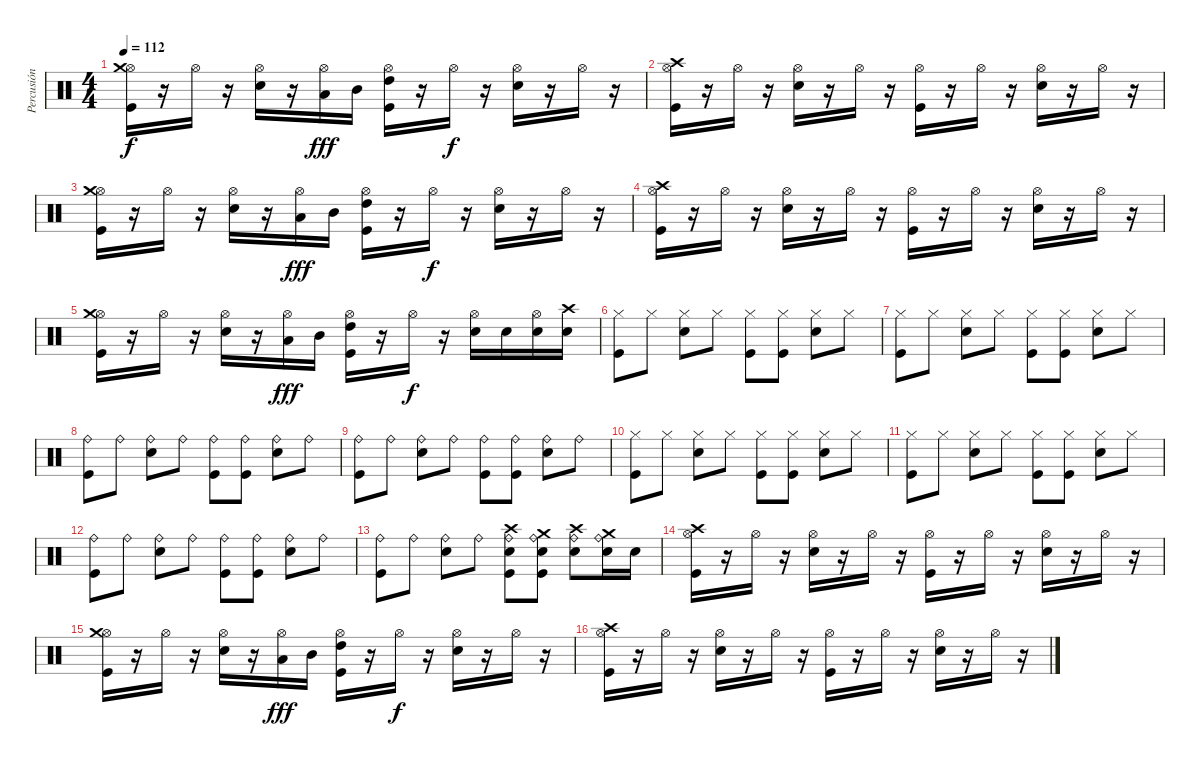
\track ("Percusión" "Percusión") {instrument percussion}
\staff {score}
\articulation defaults
\ts (4 4)
\tempo 112
\clef neutral
\ks c
("Hi-Hat (open)" "Crash medium (hit)" "Kick (hit)").16{dy f} r.16 "Hi-Hat (open)".16 r.16 ("Hi-Hat (open)" "Snare (hit) 2").16 r.16 ("Hi-Hat (open)" "Low Tom (hit)").16{dy fff} "Mid Tom (hit)".16 ("Hi-Hat (open)" "High Tom (hit)" "Kick (hit)").16 r.16 "Hi-Hat (open)".16{dy f} r.16 ("Hi-Hat (open)" "Snare (hit) 2").16 r.16 "Hi-Hat (open)".16 r.16 |
("Hi-Hat (open)" "Crash high (hit)" "Kick (hit)").16 r.16 "Hi-Hat (open)".16 r.16 ("Hi-Hat (open)" "Snare (hit) 2").16 r.16 "Hi-Hat (open)".16 r.16 ("Hi-Hat (open)" "Kick (hit)").16 r.16 "Hi-Hat (open)".16 r.16 ("Hi-Hat (open)" "Snare (hit) 2").16 r.16 "Hi-Hat (open)".16 r.16 |
("Hi-Hat (open)" "Crash medium (hit)" "Kick (hit)").16 r.16 "Hi-Hat (open)".16 r.16 ("Hi-Hat (open)" "Snare (hit) 2").16 r.16 ("Hi-Hat (open)" "Low Tom (hit)").16{dy fff} "Mid Tom (hit)".16 ("Hi-Hat (open)" "High Tom (hit)" "Kick (hit)").16 r.16 "Hi-Hat (open)".16{dy f} r.16 ("Hi-Hat (open)" "Snare (hit) 2").16 r.16 "Hi-Hat (open)".16 r.16 |
("Hi-Hat (open)" "Crash high (hit)" "Kick (hit)").16 r.16 "Hi-Hat (open)".16 r.16 ("Hi-Hat (open)" "Snare (hit) 2").16 r.16 "Hi-Hat (open)".16 r.16 ("Hi-Hat (open)" "Kick (hit)").16 r.16 "Hi-Hat (open)".16 r.16 ("Hi-Hat (open)" "Snare (hit) 2").16 r.16 "Hi-Hat (open)".16 r.16 |
("Hi-Hat (open)" "Crash medium (hit)" "Kick (hit)").16 r.16 "Hi-Hat (open)".16 r.16 ("Hi-Hat (open)" "Snare (hit) 2").16 r.16 ("Hi-Hat (open)" "Low Tom (hit)").16{dy fff} "Mid Tom (hit)".16 ("Hi-Hat (open)" "High Tom (hit)" "Kick (hit)").16 r.16 "Hi-Hat (open)".16{dy f} r.16 ("Hi-Hat (open)" "Snare (hit) 2").16 "Snare (hit) 2".16 ("Hi-Hat (open)" "Snare (hit) 2").16 ("Crash high (hit)" "Snare (hit) 2").16 |
("Hi-Hat (closed)" "Kick (hit)").8 "Hi-Hat (closed)".8 ("Hi-Hat (closed)" "Snare (hit) 2").8 "Hi-Hat (closed)".8 ("Hi-Hat (closed)" "Kick (hit)").8 ("Hi-Hat (closed)" "Kick (hit)").8 ("Hi-Hat (closed)" "Snare (hit) 2").8 "Hi-Hat (closed)".8 |
("Hi-Hat (closed)" "Kick (hit)").8 "Hi-Hat (closed)".8 ("Hi-Hat (closed)" "Snare (hit) 2").8 "Hi-Hat (closed)".8 ("Hi-Hat (closed)" "Kick (hit)").8 ("Hi-Hat (closed)" "Kick (hit)").8 ("Hi-Hat (closed)" "Snare (hit) 2").8 "Hi-Hat (closed)".8 |
("Ride (bell)" "Kick (hit)").8 "Ride (bell)".8 ("Ride (bell)" "Snare (hit) 2").8 "Ride (bell)".8 ("Ride (bell)" "Kick (hit)").8 ("Ride (bell)" "Kick (hit)").8 ("Ride (bell)" "Snare (hit) 2").8 "Ride (bell)".8 |
("Ride (bell)" "Kick (hit)").8 "Ride (bell)".8 ("Ride (bell)" "Snare (hit) 2").8 "Ride (bell)".8 ("Ride (bell)" "Kick (hit)").8 ("Ride (bell)" "Kick (hit)").8 ("Ride (bell)" "Snare (hit) 2").8 "Ride (bell)".8 |
("Hi-Hat (closed)" "Kick (hit)").8 "Hi-Hat (closed)".8 ("Hi-Hat (closed)" "Snare (hit) 2").8 "Hi-Hat (closed)".8 ("Hi-Hat (closed)" "Kick (hit)").8 ("Hi-Hat (closed)" "Kick (hit)").8 ("Hi-Hat (closed)" "Snare (hit) 2").8 "Hi-Hat (closed)".8 |
("Hi-Hat (closed)" "Kick (hit)").8 "Hi-Hat (closed)".8 ("Hi-Hat (closed)" "Snare (hit) 2").8 "Hi-Hat (closed)".8 ("Hi-Hat (closed)" "Kick (hit)").8 ("Hi-Hat (closed)" "Kick (hit)").8 ("Hi-Hat (closed)" "Snare (hit) 2").8 "Hi-Hat (closed)".8 |
("Ride (bell)" "Kick (hit)").8 "Ride (bell)".8 ("Ride (bell)" "Snare (hit) 2").8 "Ride (bell)".8 ("Ride (bell)" "Kick (hit)").8 ("Ride (bell)" "Kick (hit)").8 ("Ride (bell)" "Snare (hit) 2").8 "Ride (bell)".8 |
("Ride (bell)" "Kick (hit)").8 "Ride (bell)".8 ("Ride (bell)" "Snare (hit) 2").8 "Ride (bell)".8 ("Ride (bell)" "Crash high (hit)" "Snare (hit) 2" "Kick (hit)").8 ("Ride (bell)" "Crash medium (hit)" "Snare (hit) 2" "Kick (hit)").8 ("Ride (bell)" "Crash high (hit)" "Snare (hit) 2").8 ("Ride (bell)" "Crash medium (hit)" "Snare (hit) 2").16 "Snare (hit) 2".16 |
("Hi-Hat (open)" "Crash high (hit)" "Kick (hit)").16 r.16 "Hi-Hat (open)".16 r.16 ("Hi-Hat (open)" "Snare (hit) 2").16 r.16 "Hi-Hat (open)".16 r.16 ("Hi-Hat (open)" "Kick (hit)").16 r.16 "Hi-Hat (open)".16 r.16 ("Hi-Hat (open)" "Snare (hit) 2").16 r.16 "Hi-Hat (open)".16 r.16 |
("Hi-Hat (open)" "Crash medium (hit)" "Kick (hit)").16 r.16 "Hi-Hat (open)".16 r.16 ("Hi-Hat (open)" "Snare (hit) 2").16 r.16 ("Hi-Hat (open)" "Low Tom (hit)").16{dy fff} "Mid Tom (hit)".16 ("Hi-Hat (open)" "High Tom (hit)" "Kick (hit)").16 r.16 "Hi-Hat (open)".16{dy f} r.16 ("Hi-Hat (open)" "Snare (hit) 2").16 r.16 "Hi-Hat (open)".16 r.16 |
("Hi-Hat (open)" "Crash high (hit)" "Kick (hit)").16 r.16 "Hi-Hat (open)".16 r.16 ("Hi-Hat (open)" "Snare (hit) 2").16 r.16 "Hi-Hat (open)".16 r.16 ("Hi-Hat (open)" "Kick (hit)").16 r.16 "Hi-Hat (open)".16 r.16 ("Hi-Hat (open)" "Snare (hit) 2").16 r.16 "Hi-Hat (open)".16 r.16
